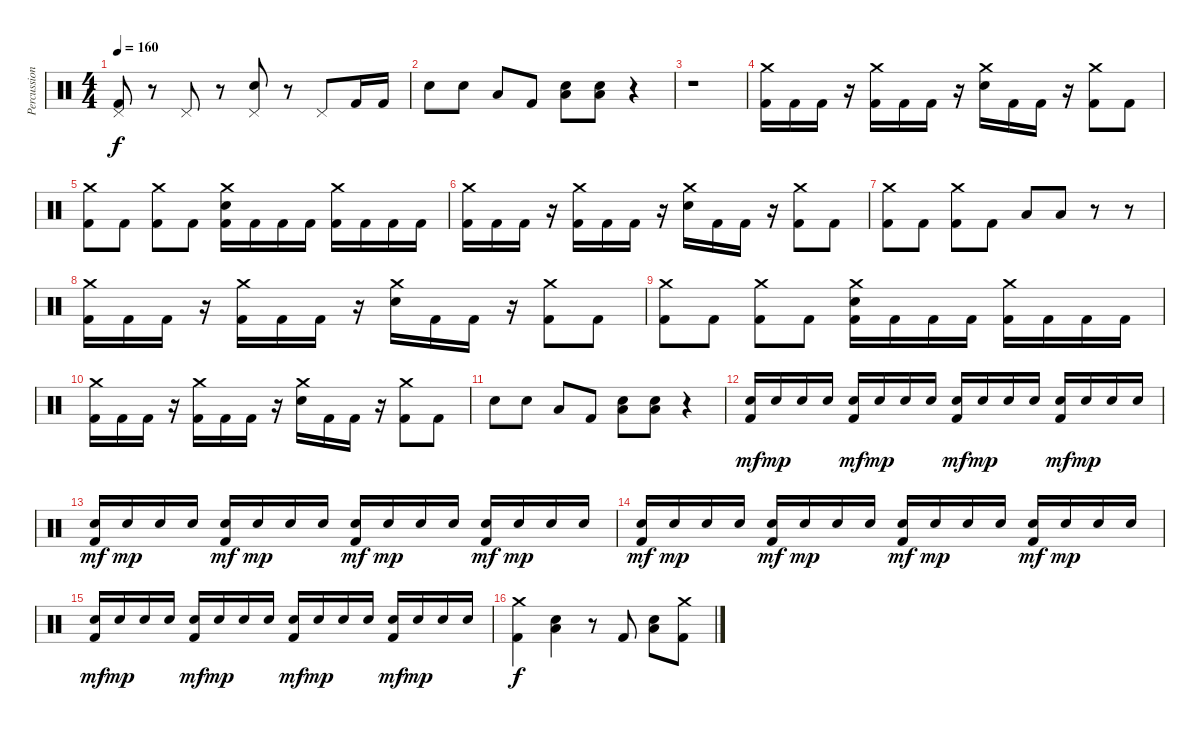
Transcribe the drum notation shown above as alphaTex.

\track ("Percussions" "Percussion") {instrument percussion}
\staff {score}
\articulation defaults
\ts (4 4)
\tempo 160
\clef neutral
\ks c
("Kick (hit) 2" "Pedal Hi-Hat (hit)").8{dy f} r.8 "Pedal Hi-Hat (hit)".8 r.8 ("Electric Snare (hit)" "Pedal Hi-Hat (hit)").8 r.8 "Pedal Hi-Hat (hit)".8 "Kick (hit) 2".16 "Kick (hit) 2".16 |
"Electric Snare (hit)".8 "Electric Snare (hit)".8 "Low Tom (hit)".8 "Kick (hit) 2".8 ("Electric Snare (hit)" "Low Tom (hit)").8 ("Electric Snare (hit)" "Low Tom (hit)").8 r.4 |
r.1 |
("Kick (hit) 2" "Crash medium (hit)").16 "Kick (hit) 2".16 "Kick (hit) 2".16 r.16 ("Kick (hit) 2" "Crash medium (hit)").16 "Kick (hit) 2".16 "Kick (hit) 2".16 r.16 ("Electric Snare (hit)" "Crash medium (hit)").16 "Kick (hit) 2".16 "Kick (hit) 2".16 r.16 ("Kick (hit) 2" "Crash medium (hit)").8 "Kick (hit) 2".8 |
("Kick (hit) 2" "Crash medium (hit)").8 "Kick (hit) 2".8 ("Kick (hit) 2" "Crash medium (hit)").8 "Kick (hit) 2".8 ("Kick (hit) 2" "Electric Snare (hit)" "Crash medium (hit)").16 "Kick (hit) 2".16 "Kick (hit) 2".16 "Kick (hit) 2".16 ("Kick (hit) 2" "Crash medium (hit)").16 "Kick (hit) 2".16 "Kick (hit) 2".16 "Kick (hit) 2".16 |
("Kick (hit) 2" "Crash medium (hit)").16 "Kick (hit) 2".16 "Kick (hit) 2".16 r.16 ("Kick (hit) 2" "Crash medium (hit)").16 "Kick (hit) 2".16 "Kick (hit) 2".16 r.16 ("Electric Snare (hit)" "Crash medium (hit)").16 "Kick (hit) 2".16 "Kick (hit) 2".16 r.16 ("Kick (hit) 2" "Crash medium (hit)").8 "Kick (hit) 2".8 |
("Kick (hit) 2" "Crash medium (hit)").8 "Kick (hit) 2".8 ("Kick (hit) 2" "Crash medium (hit)").8 "Kick (hit) 2".8 "Low Tom (hit)".8 "Low Tom (hit)".8 r.8 r.8 |
("Kick (hit) 2" "Crash medium (hit)").16 "Kick (hit) 2".16 "Kick (hit) 2".16 r.16 ("Kick (hit) 2" "Crash medium (hit)").16 "Kick (hit) 2".16 "Kick (hit) 2".16 r.16 ("Electric Snare (hit)" "Crash medium (hit)").16 "Kick (hit) 2".16 "Kick (hit) 2".16 r.16 ("Kick (hit) 2" "Crash medium (hit)").8 "Kick (hit) 2".8 |
("Kick (hit) 2" "Crash medium (hit)").8 "Kick (hit) 2".8 ("Kick (hit) 2" "Crash medium (hit)").8 "Kick (hit) 2".8 ("Kick (hit) 2" "Electric Snare (hit)" "Crash medium (hit)").16 "Kick (hit) 2".16 "Kick (hit) 2".16 "Kick (hit) 2".16 ("Kick (hit) 2" "Crash medium (hit)").16 "Kick (hit) 2".16 "Kick (hit) 2".16 "Kick (hit) 2".16 |
("Kick (hit) 2" "Crash medium (hit)").16 "Kick (hit) 2".16 "Kick (hit) 2".16 r.16 ("Kick (hit) 2" "Crash medium (hit)").16 "Kick (hit) 2".16 "Kick (hit) 2".16 r.16 ("Electric Snare (hit)" "Crash medium (hit)").16 "Kick (hit) 2".16 "Kick (hit) 2".16 r.16 ("Kick (hit) 2" "Crash medium (hit)").8 "Kick (hit) 2".8 |
"Electric Snare (hit)".8 "Electric Snare (hit)".8 "Low Tom (hit)".8 "Kick (hit) 2".8 ("Electric Snare (hit)" "Low Tom (hit)").8 ("Electric Snare (hit)" "Low Tom (hit)").8 r.4 |
("Kick (hit) 2" "Electric Snare (hit)").16{dy mf} "Electric Snare (hit)".16{dy mp} "Electric Snare (hit)".16 "Electric Snare (hit)".16 ("Kick (hit) 2" "Electric Snare (hit)").16{dy mf} "Electric Snare (hit)".16{dy mp} "Electric Snare (hit)".16 "Electric Snare (hit)".16 ("Kick (hit) 2" "Electric Snare (hit)").16{dy mf} "Electric Snare (hit)".16{dy mp} "Electric Snare (hit)".16 "Electric Snare (hit)".16 ("Kick (hit) 2" "Electric Snare (hit)").16{dy mf} "Electric Snare (hit)".16{dy mp} "Electric Snare (hit)".16 "Electric Snare (hit)".16 |
("Kick (hit) 2" "Electric Snare (hit)").16{dy mf} "Electric Snare (hit)".16{dy mp} "Electric Snare (hit)".16 "Electric Snare (hit)".16 ("Kick (hit) 2" "Electric Snare (hit)").16{dy mf} "Electric Snare (hit)".16{dy mp} "Electric Snare (hit)".16 "Electric Snare (hit)".16 ("Kick (hit) 2" "Electric Snare (hit)").16{dy mf} "Electric Snare (hit)".16{dy mp} "Electric Snare (hit)".16 "Electric Snare (hit)".16 ("Kick (hit) 2" "Electric Snare (hit)").16{dy mf} "Electric Snare (hit)".16{dy mp} "Electric Snare (hit)".16 "Electric Snare (hit)".16 |
("Kick (hit) 2" "Electric Snare (hit)").16{dy mf} "Electric Snare (hit)".16{dy mp} "Electric Snare (hit)".16 "Electric Snare (hit)".16 ("Kick (hit) 2" "Electric Snare (hit)").16{dy mf} "Electric Snare (hit)".16{dy mp} "Electric Snare (hit)".16 "Electric Snare (hit)".16 ("Kick (hit) 2" "Electric Snare (hit)").16{dy mf} "Electric Snare (hit)".16{dy mp} "Electric Snare (hit)".16 "Electric Snare (hit)".16 ("Kick (hit) 2" "Electric Snare (hit)").16{dy mf} "Electric Snare (hit)".16{dy mp} "Electric Snare (hit)".16 "Electric Snare (hit)".16 |
("Kick (hit) 2" "Electric Snare (hit)").16{dy mf} "Electric Snare (hit)".16{dy mp} "Electric Snare (hit)".16 "Electric Snare (hit)".16 ("Kick (hit) 2" "Electric Snare (hit)").16{dy mf} "Electric Snare (hit)".16{dy mp} "Electric Snare (hit)".16 "Electric Snare (hit)".16 ("Kick (hit) 2" "Electric Snare (hit)").16{dy mf} "Electric Snare (hit)".16{dy mp} "Electric Snare (hit)".16 "Electric Snare (hit)".16 ("Kick (hit) 2" "Electric Snare (hit)").16{dy mf} "Electric Snare (hit)".16{dy mp} "Electric Snare (hit)".16 "Electric Snare (hit)".16 |
("Kick (hit) 2" "Crash medium (hit)").4{dy f} ("Electric Snare (hit)" "Low Tom (hit)").4 r.8 "Kick (hit) 2".8 ("Electric Snare (hit)" "Low Tom (hit)").8 ("Kick (hit) 2" "Crash medium (hit)").8
